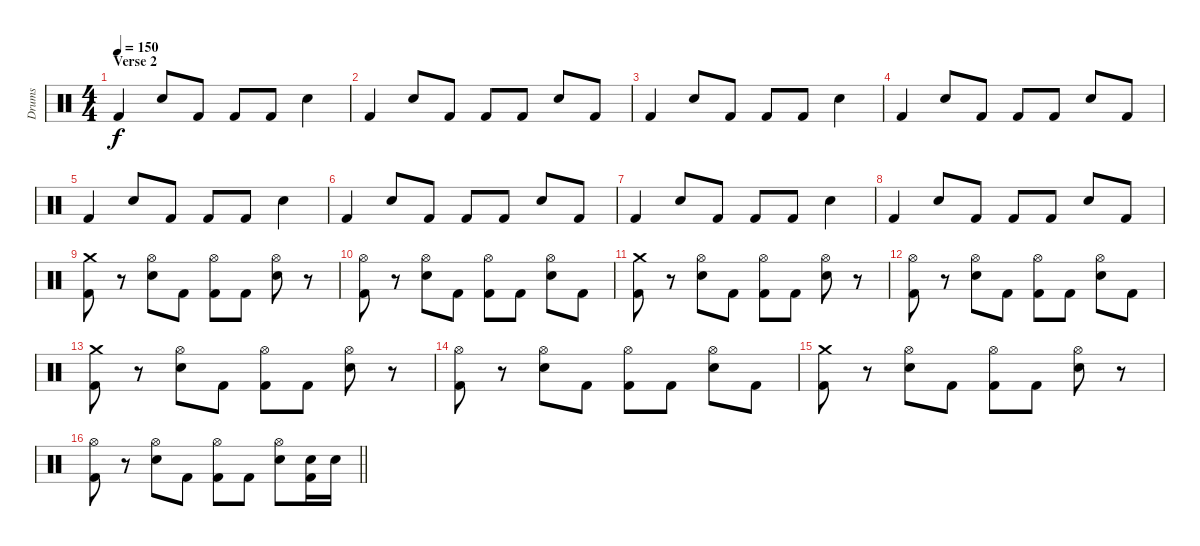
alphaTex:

\track ("Drums" "Drums") {instrument percussion}
\staff {score}
\articulation defaults
\ts (4 4)
\section ("" "Verse 2")
\tempo 150
\clef neutral
\ks c "Kick (hit) 2".4{dy f} "Electric Snare (hit)".8 "Kick (hit) 2".8 "Kick (hit) 2".8 "Kick (hit) 2".8 "Electric Snare (hit)".4
|
"Kick (hit) 2".4 "Electric Snare (hit)".8 "Kick (hit) 2".8 "Kick (hit) 2".8 "Kick (hit) 2".8 "Electric Snare (hit)".8 "Kick (hit) 2".8 |
"Kick (hit) 2".4 "Electric Snare (hit)".8 "Kick (hit) 2".8 "Kick (hit) 2".8 "Kick (hit) 2".8 "Electric Snare (hit)".4 |
"Kick (hit) 2".4 "Electric Snare (hit)".8 "Kick (hit) 2".8 "Kick (hit) 2".8 "Kick (hit) 2".8 "Electric Snare (hit)".8 "Kick (hit) 2".8 |
"Kick (hit) 2".4 "Electric Snare (hit)".8 "Kick (hit) 2".8 "Kick (hit) 2".8 "Kick (hit) 2".8 "Electric Snare (hit)".4 |
"Kick (hit) 2".4 "Electric Snare (hit)".8 "Kick (hit) 2".8 "Kick (hit) 2".8 "Kick (hit) 2".8 "Electric Snare (hit)".8 "Kick (hit) 2".8 |
"Kick (hit) 2".4 "Electric Snare (hit)".8 "Kick (hit) 2".8 "Kick (hit) 2".8 "Kick (hit) 2".8 "Electric Snare (hit)".4 |
"Kick (hit) 2".4 "Electric Snare (hit)".8 "Kick (hit) 2".8 "Kick (hit) 2".8 "Kick (hit) 2".8 "Electric Snare (hit)".8 "Kick (hit) 2".8 |
("Crash medium (hit)" "Kick (hit) 2").8 r.8 ("Hi-Hat (open)" "Electric Snare (hit)").8 "Kick (hit) 2".8 ("Hi-Hat (open)" "Kick (hit) 2").8 "Kick (hit) 2".8 ("Hi-Hat (open)" "Electric Snare (hit)").8 r.8 |
("Hi-Hat (open)" "Kick (hit) 2").8 r.8 ("Hi-Hat (open)" "Electric Snare (hit)").8 "Kick (hit) 2".8 ("Hi-Hat (open)" "Kick (hit) 2").8 "Kick (hit) 2".8 ("Hi-Hat (open)" "Electric Snare (hit)").8 "Kick (hit) 2".8 |
("Crash medium (hit)" "Kick (hit) 2").8 r.8 ("Hi-Hat (open)" "Electric Snare (hit)").8 "Kick (hit) 2".8 ("Hi-Hat (open)" "Kick (hit) 2").8 "Kick (hit) 2".8 ("Hi-Hat (open)" "Electric Snare (hit)").8 r.8 |
("Hi-Hat (open)" "Kick (hit) 2").8 r.8 ("Hi-Hat (open)" "Electric Snare (hit)").8 "Kick (hit) 2".8 ("Hi-Hat (open)" "Kick (hit) 2").8 "Kick (hit) 2".8 ("Hi-Hat (open)" "Electric Snare (hit)").8 "Kick (hit) 2".8 |
("Crash medium (hit)" "Kick (hit) 2").8 r.8 ("Hi-Hat (open)" "Electric Snare (hit)").8 "Kick (hit) 2".8 ("Hi-Hat (open)" "Kick (hit) 2").8 "Kick (hit) 2".8 ("Hi-Hat (open)" "Electric Snare (hit)").8 r.8 |
("Hi-Hat (open)" "Kick (hit) 2").8 r.8 ("Hi-Hat (open)" "Electric Snare (hit)").8 "Kick (hit) 2".8 ("Hi-Hat (open)" "Kick (hit) 2").8 "Kick (hit) 2".8 ("Hi-Hat (open)" "Electric Snare (hit)").8 "Kick (hit) 2".8 |
("Crash medium (hit)" "Kick (hit) 2").8 r.8 ("Hi-Hat (open)" "Electric Snare (hit)").8 "Kick (hit) 2".8 ("Hi-Hat (open)" "Kick (hit) 2").8 "Kick (hit) 2".8 ("Hi-Hat (open)" "Electric Snare (hit)").8 r.8 |
\barLineRight lightlight
("Hi-Hat (open)" "Kick (hit) 2").8 r.8 ("Hi-Hat (open)" "Electric Snare (hit)").8 "Kick (hit) 2".8 ("Hi-Hat (open)" "Kick (hit) 2").8 "Kick (hit) 2".8 ("Hi-Hat (open)" "Electric Snare (hit)").8 ("Electric Snare (hit)" "Kick (hit) 2").16 "Electric Snare (hit)".16
